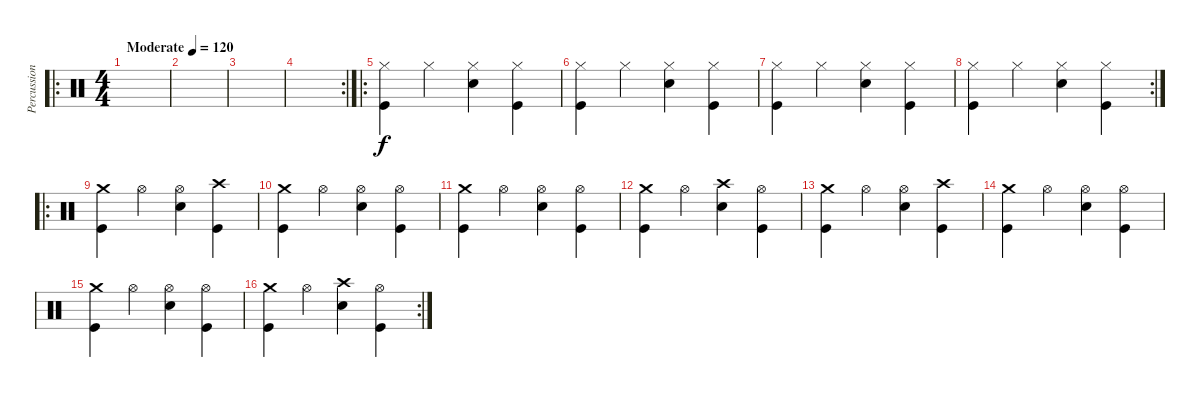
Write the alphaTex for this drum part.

\track ("Percussion" "Percussion") {instrument percussion}
\staff {score}
\articulation defaults
\ro
\ts (4 4)
\tempo (120 "Moderate")
\clef neutral
\ks c
|
|
|
\rc 2
|
\ro
("Hi-Hat (closed)" "Kick (hit)").4 "Hi-Hat (closed)".4 ("Hi-Hat (closed)" "Snare (hit) 2").4 ("Hi-Hat (closed)" "Kick (hit)").4 |
("Hi-Hat (closed)" "Kick (hit)").4 "Hi-Hat (closed)".4 ("Hi-Hat (closed)" "Snare (hit) 2").4 ("Hi-Hat (closed)" "Kick (hit)").4 |
("Hi-Hat (closed)" "Kick (hit)").4 "Hi-Hat (closed)".4 ("Hi-Hat (closed)" "Snare (hit) 2").4 ("Hi-Hat (closed)" "Kick (hit)").4 |
\rc 2
("Hi-Hat (closed)" "Kick (hit)").4 "Hi-Hat (closed)".4 ("Hi-Hat (closed)" "Snare (hit) 2").4 ("Hi-Hat (closed)" "Kick (hit)").4 |
\ro
("Crash medium (hit)" "Kick (hit)").4 "Hi-Hat (open)".4 ("Hi-Hat (open)" "Snare (hit) 2").4 ("Crash high (hit)" "Kick (hit)").4 |
("Crash medium (hit)" "Kick (hit)").4 "Hi-Hat (open)".4 ("Hi-Hat (open)" "Snare (hit) 2").4 ("Hi-Hat (open)" "Kick (hit)").4 |
("Crash medium (hit)" "Kick (hit)").4 "Hi-Hat (open)".4 ("Hi-Hat (open)" "Snare (hit) 2").4 ("Hi-Hat (open)" "Kick (hit)").4 |
("Crash medium (hit)" "Kick (hit)").4 "Hi-Hat (open)".4 ("Crash high (hit)" "Snare (hit) 2").4 ("Hi-Hat (open)" "Kick (hit)").4 |
("Crash medium (hit)" "Kick (hit)").4 "Hi-Hat (open)".4 ("Hi-Hat (open)" "Snare (hit) 2").4 ("Crash high (hit)" "Kick (hit)").4 |
("Crash medium (hit)" "Kick (hit)").4 "Hi-Hat (open)".4 ("Hi-Hat (open)" "Snare (hit) 2").4 ("Hi-Hat (open)" "Kick (hit)").4 |
("Crash medium (hit)" "Kick (hit)").4 "Hi-Hat (open)".4 ("Hi-Hat (open)" "Snare (hit) 2").4 ("Hi-Hat (open)" "Kick (hit)").4 |
\rc 2
("Crash medium (hit)" "Kick (hit)").4 "Hi-Hat (open)".4 ("Crash high (hit)" "Snare (hit) 2").4 ("Hi-Hat (open)" "Kick (hit)").4
